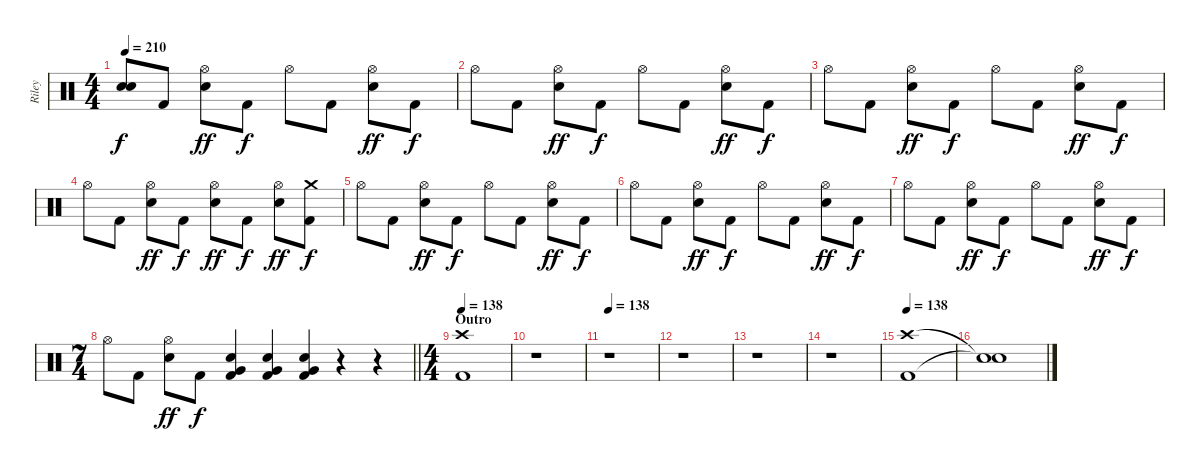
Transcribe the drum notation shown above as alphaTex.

\track ("Riley" "Riley") {instrument percussion}
\staff {score}
\articulation defaults
\ts (4 4)
\tempo 210
\clef neutral
\ks c
("Snare (hit)"{t} "Snare (hit)"{t}).8{dy f} "Kick (hit) 2".8 ("Hi-Hat (open)" "Electric Snare (hit)").8{dy ff} "Kick (hit) 2".8{dy f} "Hi-Hat (open)".8 "Kick (hit) 2".8 ("Hi-Hat (open)" "Electric Snare (hit)").8{dy ff} "Kick (hit) 2".8{dy f} |
"Hi-Hat (open)".8 "Kick (hit) 2".8 ("Hi-Hat (open)" "Electric Snare (hit)").8{dy ff} "Kick (hit) 2".8{dy f} "Hi-Hat (open)".8 "Kick (hit) 2".8 ("Hi-Hat (open)" "Electric Snare (hit)").8{dy ff} "Kick (hit) 2".8{dy f} |
"Hi-Hat (open)".8 "Kick (hit) 2".8 ("Hi-Hat (open)" "Electric Snare (hit)").8{dy ff} "Kick (hit) 2".8{dy f} "Hi-Hat (open)".8 "Kick (hit) 2".8 ("Hi-Hat (open)" "Electric Snare (hit)").8{dy ff} "Kick (hit) 2".8{dy f} |
"Hi-Hat (open)".8 "Kick (hit) 2".8 ("Hi-Hat (open)" "Electric Snare (hit)").8{dy ff} "Kick (hit) 2".8{dy f} ("Hi-Hat (open)" "Electric Snare (hit)").8{dy ff} "Kick (hit) 2".8{dy f} ("Hi-Hat (open)" "Electric Snare (hit)").8{dy ff} ("Crash medium (hit)" "Kick (hit) 2").8{dy f} |
"Hi-Hat (open)".8 "Kick (hit) 2".8 ("Hi-Hat (open)" "Electric Snare (hit)").8{dy ff} "Kick (hit) 2".8{dy f} "Hi-Hat (open)".8 "Kick (hit) 2".8 ("Hi-Hat (open)" "Electric Snare (hit)").8{dy ff} "Kick (hit) 2".8{dy f} |
"Hi-Hat (open)".8 "Kick (hit) 2".8 ("Hi-Hat (open)" "Electric Snare (hit)").8{dy ff} "Kick (hit) 2".8{dy f} "Hi-Hat (open)".8 "Kick (hit) 2".8 ("Hi-Hat (open)" "Electric Snare (hit)").8{dy ff} "Kick (hit) 2".8{dy f} |
"Hi-Hat (open)".8 "Kick (hit) 2".8 ("Hi-Hat (open)" "Electric Snare (hit)").8{dy ff} "Kick (hit) 2".8{dy f} "Hi-Hat (open)".8 "Kick (hit) 2".8 ("Hi-Hat (open)" "Electric Snare (hit)").8{dy ff} "Kick (hit) 2".8{dy f} |
\ts (7 4)
\barLineRight lightlight "Hi-Hat (open)".8 "Kick (hit) 2".8
("Hi-Hat (open)" "Electric Snare (hit)").8{dy ff} "Kick (hit) 2".8{dy f} ("Very Low Tom (hit)" "Electric Snare (hit)" "Kick (hit) 2").4 ("Very Low Tom (hit)" "Electric Snare (hit)" "Kick (hit) 2").4 ("Very Low Tom (hit)" "Electric Snare (hit)" "Kick (hit) 2").4 r.4 r.4 |
\ts (4 4)
\section ("" "Outro")
\tempo 138
("Crash high (hit)" "Kick (hit) 2").1 |
r.1 |
\tempo 138
r.1 |
r.1 |
r.1 |
r.1 |
\tempo 138
("Crash high (hit)" "Kick (hit) 2").1 |
("Snare (hit)"{t} "Snare (hit)"{t}).1
